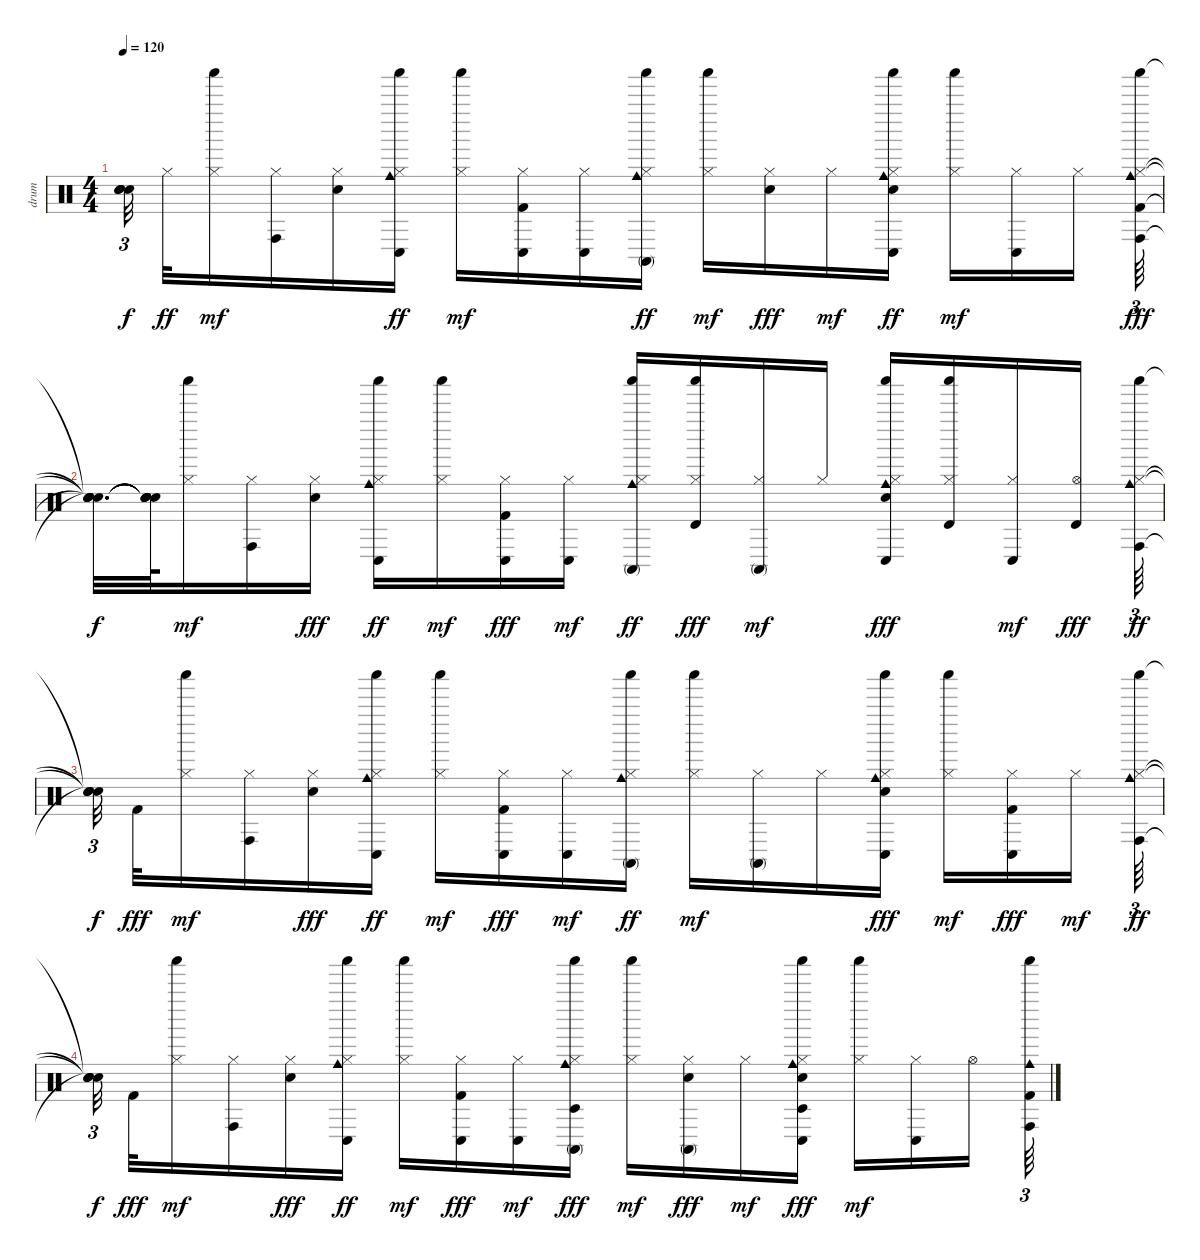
\track ("drum" "drum") {instrument percussion}
\staff {score}
\articulation defaults
\ts (4 4)
\tempo 120
\clef neutral
\ks c
("Snare (hit)"{t} "Snare (hit)"{t} "Snare (hit)"{t} "Snare (hit)"{t}).32{tu (3 2) dy f beam splitsecondary} "Hi-Hat (closed)".32{dy ff} ("Shaker (hit)" "Hi-Hat (closed)").16{dy mf} ("Conga high (hit)" "Hi-Hat (closed)").16 ("Electric Snare (hit)" "Hi-Hat (closed)").16 ("Conga low (hit)" "Cowbell medium (hit)" "Shaker (hit)" "Hi-Hat (closed)").16{dy ff} ("Shaker (hit)" "Hi-Hat (closed)").16{dy mf} ("Conga low (hit)" "Kick (hit) 2" "Hi-Hat (closed)").16 ("Conga low (hit)" "Hi-Hat (closed)").16 ("Conga high (mute)" "Cowbell medium (hit)" "Shaker (hit)" "Hi-Hat (closed)").16{dy ff} ("Hi-Hat (closed)" "Shaker (hit)").16{dy mf} ("Hi-Hat (closed)" "Electric Snare (hit)").16{dy fff} "Hi-Hat (closed)".16{dy mf} ("Conga low (hit)" "Shaker (hit)" "Cowbell medium (hit)" "Electric Snare (hit)" "Hi-Hat (closed)").16{dy ff} ("Shaker (hit)" "Hi-Hat (closed)").16{dy mf} ("Conga low (hit)" "Hi-Hat (closed)").16 "Hi-Hat (closed)".16{beam splitsecondary} ("Conga high (hit)" "Shaker (hit)" "Hi-Hat (closed)" "Cowbell medium (hit)" "Kick (hit) 2").64{tu (3 2) dy fff} |
("Snare (hit)"{t} "Snare (hit)"{t} "Snare (hit)"{t} "Snare (hit)"{t} "Snare (hit)"{t}).32{d dy f} ("Snare (hit)"{t} "Snare (hit)"{t} "Snare (hit)"{t} "Snare (hit)"{t} "Snare (hit)"{t}).64 ("Shaker (hit)" "Hi-Hat (closed)").16{dy mf} ("Conga high (hit)" "Hi-Hat (closed)").16 ("Hi-Hat (closed)" "Electric Snare (hit)").16{dy fff} ("Conga low (hit)" "Cowbell medium (hit)" "Shaker (hit)" "Hi-Hat (closed)").16{dy ff} ("Shaker (hit)" "Hi-Hat (closed)").16{dy mf} ("Conga low (hit)" "Hi-Hat (closed)" "Kick (hit) 2").16{dy fff} ("Conga low (hit)" "Hi-Hat (closed)").16{dy mf} ("Cowbell medium (hit)" "Conga high (mute)" "Shaker (hit)" "Hi-Hat (closed)").16{dy ff} ("Shaker (hit)" "Hi-Hat (closed)" "Timbale high (hit)").16{dy fff} ("Conga high (mute)" "Hi-Hat (closed)").16{dy mf} "Hi-Hat (closed)".16 ("Conga low (hit)" "Cowbell medium (hit)" "Shaker (hit)" "Hi-Hat (closed)" "Electric Snare (hit)").16{dy fff} ("Shaker (hit)" "Hi-Hat (closed)" "Timbale high (hit)").16 ("Conga low (hit)" "Hi-Hat (closed)").16{dy mf} ("Hi-Hat (open)" "Timbale high (hit)").16{dy fff} ("Conga high (hit)" "Shaker (hit)" "Cowbell medium (hit)" "Hi-Hat (closed)").64{tu (3 2) dy ff} |
("Snare (hit)"{t} "Snare (hit)"{t} "Snare (hit)"{t} "Snare (hit)"{t}).32{tu (3 2) dy f beam splitsecondary} "Kick (hit) 2".32{dy fff} ("Shaker (hit)" "Hi-Hat (closed)").16{dy mf} ("Hi-Hat (closed)" "Conga high (hit)").16 ("Hi-Hat (closed)" "Electric Snare (hit)").16{dy fff} ("Cowbell medium (hit)" "Conga low (hit)" "Shaker (hit)" "Hi-Hat (closed)").16{dy ff} ("Shaker (hit)" "Hi-Hat (closed)").16{dy mf} ("Conga low (hit)" "Hi-Hat (closed)" "Kick (hit) 2").16{dy fff} ("Conga low (hit)" "Hi-Hat (closed)").16{dy mf} ("Conga high (mute)" "Cowbell medium (hit)" "Shaker (hit)" "Hi-Hat (closed)").16{dy ff} ("Shaker (hit)" "Hi-Hat (closed)").16{dy mf} ("Conga high (mute)" "Hi-Hat (closed)").16 "Hi-Hat (closed)".16 ("Conga low (hit)" "Cowbell medium (hit)" "Shaker (hit)" "Hi-Hat (closed)" "Electric Snare (hit)").16{dy fff} ("Shaker (hit)" "Hi-Hat (closed)").16{dy mf} ("Conga low (hit)" "Hi-Hat (closed)" "Kick (hit) 2").16{dy fff} "Hi-Hat (closed)".16{dy mf beam splitsecondary} ("Conga high (hit)" "Cowbell medium (hit)" "Shaker (hit)" "Hi-Hat (closed)").64{tu (3 2) dy ff} |
("Snare (hit)"{t} "Snare (hit)"{t} "Snare (hit)"{t} "Snare (hit)"{t}).32{tu (3 2) dy f beam splitsecondary} "Kick (hit) 2".32{dy fff} ("Shaker (hit)" "Hi-Hat (closed)").16{dy mf} ("Conga high (hit)" "Hi-Hat (closed)").16 ("Hi-Hat (closed)" "Electric Snare (hit)").16{dy fff} ("Conga low (hit)" "Cowbell medium (hit)" "Shaker (hit)" "Hi-Hat (closed)").16{dy ff} ("Hi-Hat (closed)" "Shaker (hit)").16{dy mf} ("Conga low (hit)" "Hi-Hat (closed)" "Kick (hit) 2").16{dy fff} ("Conga low (hit)" "Hi-Hat (closed)").16{dy mf} ("Conga high (mute)" "Cowbell medium (hit)" "Shaker (hit)" "Hi-Hat (closed)" "Timbale low (hit)").16{dy fff} ("Hi-Hat (closed)" "Shaker (hit)").16{dy mf} ("Conga high (mute)" "Hi-Hat (closed)" "Electric Snare (hit)").16{dy fff} "Hi-Hat (closed)".16{dy mf} ("Conga low (hit)" "Hi-Hat (closed)" "Shaker (hit)" "Cowbell medium (hit)" "Timbale low (hit)" "Electric Snare (hit)").16{dy fff} ("Shaker (hit)" "Hi-Hat (closed)").16{dy mf} ("Conga low (hit)" "Hi-Hat (closed)").16 "Hi-Hat (open)".16{beam splitsecondary} ("Conga high (hit)" "Shaker (hit)" "Kick (hit) 2" "Cowbell medium (hit)").64{tu (3 2)}
